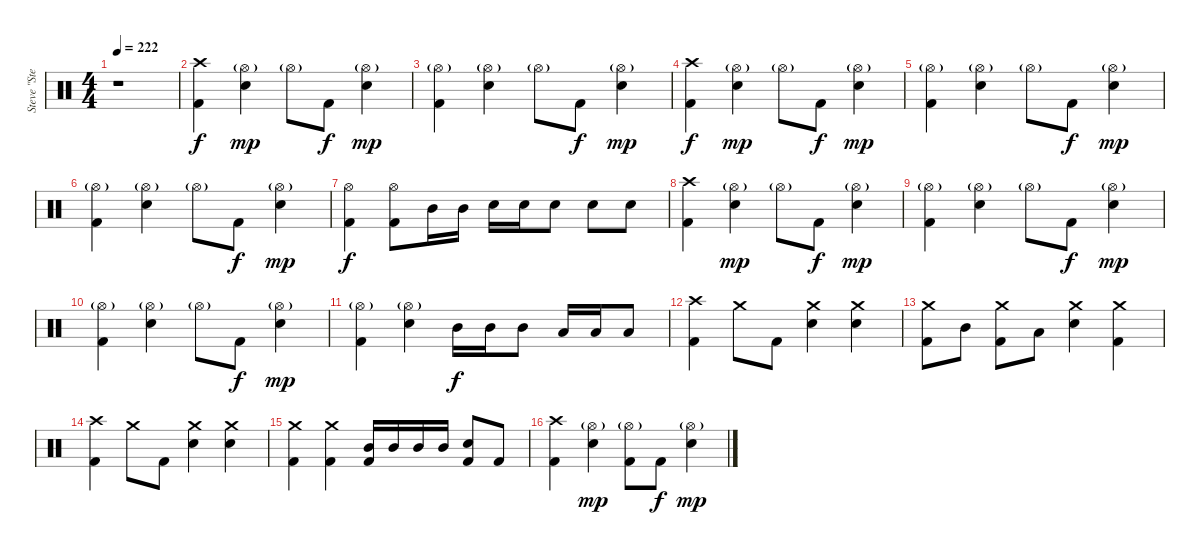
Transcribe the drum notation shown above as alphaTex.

\track ("Steve \"Stevo32\" Jocz " "Steve \"Ste") {instrument percussion}
\staff {score}
\articulation defaults
\ts (4 4)
\tempo 222
\clef neutral
\ks c
r.1{dy f} |
("Crash high (hit)" "Kick (hit) 2").4 ("Hi-Hat (open)"{g} "Electric Snare (hit)").4{dy mp} "Hi-Hat (open)"{g}.8 "Kick (hit) 2".8{dy f} ("Hi-Hat (open)"{g} "Electric Snare (hit)").4{dy mp} |
("Hi-Hat (open)"{g} "Kick (hit) 2").4 ("Hi-Hat (open)"{g} "Electric Snare (hit)").4 "Hi-Hat (open)"{g}.8 "Kick (hit) 2".8{dy f} ("Hi-Hat (open)"{g} "Electric Snare (hit)").4{dy mp} |
("Crash high (hit)" "Kick (hit) 2").4{dy f} ("Hi-Hat (open)"{g} "Electric Snare (hit)").4{dy mp} "Hi-Hat (open)"{g}.8 "Kick (hit) 2".8{dy f} ("Hi-Hat (open)"{g} "Electric Snare (hit)").4{dy mp} |
("Hi-Hat (open)"{g} "Kick (hit) 2").4 ("Hi-Hat (open)"{g} "Electric Snare (hit)").4 "Hi-Hat (open)"{g}.8 "Kick (hit) 2".8{dy f} ("Hi-Hat (open)"{g} "Electric Snare (hit)").4{dy mp} |
("Hi-Hat (open)"{g} "Kick (hit) 2").4 ("Hi-Hat (open)"{g} "Electric Snare (hit)").4 "Hi-Hat (open)"{g}.8 "Kick (hit) 2".8{dy f} ("Hi-Hat (open)"{g} "Electric Snare (hit)").4{dy mp} |
("Hi-Hat (open)" "Kick (hit) 2").4{dy f} ("Hi-Hat (open)" "Kick (hit) 2").8 "Mid Tom (hit)".16 "Mid Tom (hit)".16 "Electric Snare (hit)".16 "Electric Snare (hit)".16 "Electric Snare (hit)".8 "Electric Snare (hit)".8 "Electric Snare (hit)".8 |
("Crash high (hit)" "Kick (hit) 2").4 ("Hi-Hat (open)"{g} "Electric Snare (hit)").4{dy mp} "Hi-Hat (open)"{g}.8 "Kick (hit) 2".8{dy f} ("Hi-Hat (open)"{g} "Electric Snare (hit)").4{dy mp} |
("Hi-Hat (open)"{g} "Kick (hit) 2").4 ("Hi-Hat (open)"{g} "Electric Snare (hit)").4 "Hi-Hat (open)"{g}.8 "Kick (hit) 2".8{dy f} ("Hi-Hat (open)"{g} "Electric Snare (hit)").4{dy mp} |
("Hi-Hat (open)"{g} "Kick (hit) 2").4 ("Hi-Hat (open)"{g} "Electric Snare (hit)").4 "Hi-Hat (open)"{g}.8 "Kick (hit) 2".8{dy f} ("Hi-Hat (open)"{g} "Electric Snare (hit)").4{dy mp} |
("Hi-Hat (open)"{g} "Kick (hit) 2").4 ("Hi-Hat (open)"{g} "Electric Snare (hit)").4 "Mid Tom (hit)".16{dy f} "Mid Tom (hit)".16 "Mid Tom (hit)".8 "Low Tom (hit)".16 "Low Tom (hit)".16 "Low Tom (hit)".8 |
("Crash high (hit)" "Kick (hit) 2").4 "Crash medium (hit)".8 "Kick (hit) 2".8 ("Crash medium (hit)" "Electric Snare (hit)").4 ("Crash medium (hit)" "Electric Snare (hit)").4 |
("Crash medium (hit)" "Kick (hit) 2").8 "Mid Tom (hit)".8 ("Crash medium (hit)" "Kick (hit) 2").8 "Low Tom (hit)".8 ("Crash medium (hit)" "Electric Snare (hit)").4 ("Crash medium (hit)" "Kick (hit) 2").4 |
("Crash high (hit)" "Kick (hit) 2").4 "Crash medium (hit)".8 "Kick (hit) 2".8 ("Crash medium (hit)" "Electric Snare (hit)").4 ("Crash medium (hit)" "Electric Snare (hit)").4 |
("Crash medium (hit)" "Kick (hit) 2").4 ("Crash medium (hit)" "Kick (hit) 2").4 ("Mid Tom (hit)" "Kick (hit) 2").16 "Mid Tom (hit)".16 "Mid Tom (hit)".16 "Mid Tom (hit)".16 ("Electric Snare (hit)" "Kick (hit) 2").8 "Kick (hit) 2".8 |
("Crash high (hit)" "Kick (hit) 2").4 ("Hi-Hat (open)"{g} "Electric Snare (hit)").4{dy mp} ("Hi-Hat (open)"{g} "Kick (hit) 2").8 "Kick (hit) 2".8{dy f} ("Hi-Hat (open)"{g} "Electric Snare (hit)").4{dy mp}
